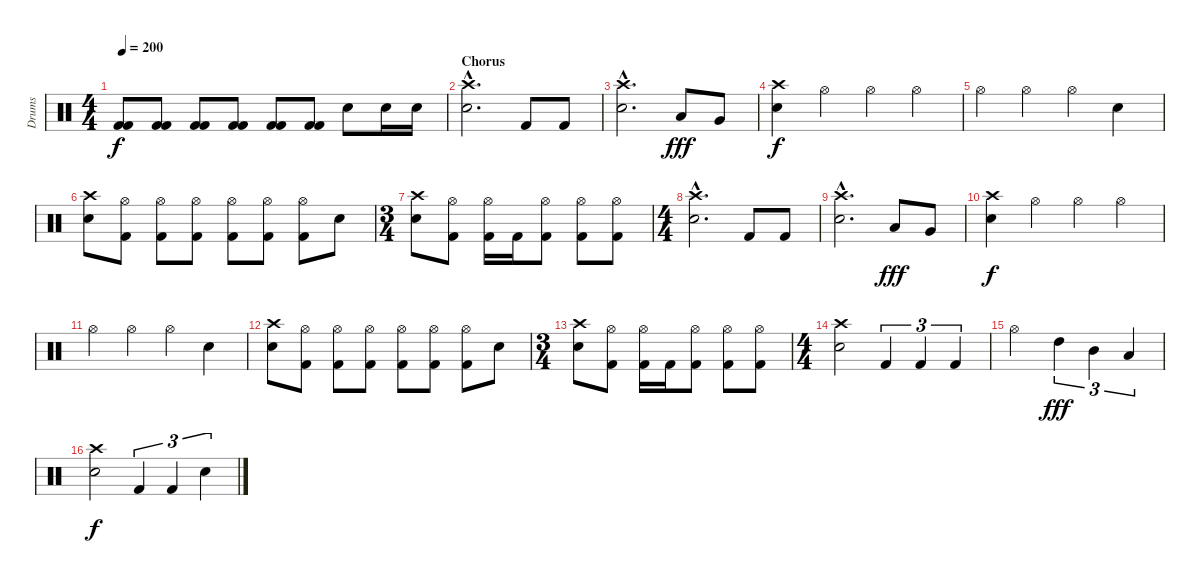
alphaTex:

\track ("Drums" "Drums") {instrument percussion}
\staff {score}
\articulation defaults
\ts (4 4)
\tempo 200
\clef neutral
\ks c
("Kick (hit) 2" "Kick (hit) 2").8{dy f} ("Kick (hit) 2" "Kick (hit) 2").8 ("Kick (hit) 2" "Kick (hit) 2").8 ("Kick (hit) 2" "Kick (hit) 2").8 ("Kick (hit) 2" "Kick (hit) 2").8 ("Kick (hit) 2" "Kick (hit) 2").8 "Snare (hit) 2".8 "Snare (hit) 2".16 "Snare (hit) 2".16 |
\section ("" "Chorus")
("Crash high (hit)"{hac} "Snare (hit) 2"{hac}).2{d} "Kick (hit) 2".8 "Kick (hit) 2".8 |
("Crash high (hit)"{hac} "Snare (hit) 2"{hac}).2{d} "Low Tom (hit)".8{dy fff} "Very Low Tom (hit)".8 |
("Crash high (hit)" "Snare (hit) 2").4{dy f} "Hi-Hat (open)".4 "Hi-Hat (open)".4 "Hi-Hat (open)".4 |
"Hi-Hat (open)".4 "Hi-Hat (open)".4 "Hi-Hat (open)".4 "Snare (hit) 2".4 |
("Crash high (hit)" "Snare (hit) 2").8 ("Hi-Hat (open)" "Kick (hit) 2").8 ("Hi-Hat (open)" "Kick (hit) 2").8 ("Hi-Hat (open)" "Kick (hit) 2").8 ("Hi-Hat (open)" "Kick (hit) 2").8 ("Hi-Hat (open)" "Kick (hit) 2").8 ("Hi-Hat (open)" "Kick (hit) 2").8 "Snare (hit) 2".8 |
\ts (3 4)
("Crash high (hit)" "Snare (hit) 2").8 ("Hi-Hat (open)" "Kick (hit) 2").8 ("Hi-Hat (open)" "Kick (hit) 2").16 "Kick (hit) 2".16 ("Hi-Hat (open)" "Kick (hit) 2").8 ("Hi-Hat (open)" "Kick (hit) 2").8 ("Hi-Hat (open)" "Kick (hit) 2").8 |
\ts (4 4)
("Crash high (hit)"{hac} "Snare (hit) 2"{hac}).2{d} "Kick (hit) 2".8 "Kick (hit) 2".8 |
("Crash high (hit)"{hac} "Snare (hit) 2"{hac}).2{d} "Low Tom (hit)".8{dy fff} "Very Low Tom (hit)".8 |
("Crash high (hit)" "Snare (hit) 2").4{dy f} "Hi-Hat (open)".4 "Hi-Hat (open)".4 "Hi-Hat (open)".4 |
"Hi-Hat (open)".4 "Hi-Hat (open)".4 "Hi-Hat (open)".4 "Snare (hit) 2".4 |
("Crash high (hit)" "Snare (hit) 2").8 ("Hi-Hat (open)" "Kick (hit) 2").8 ("Hi-Hat (open)" "Kick (hit) 2").8 ("Hi-Hat (open)" "Kick (hit) 2").8 ("Hi-Hat (open)" "Kick (hit) 2").8 ("Hi-Hat (open)" "Kick (hit) 2").8 ("Hi-Hat (open)" "Kick (hit) 2").8 "Snare (hit) 2".8 |
\ts (3 4)
("Crash high (hit)" "Snare (hit) 2").8 ("Hi-Hat (open)" "Kick (hit) 2").8 ("Hi-Hat (open)" "Kick (hit) 2").16 "Kick (hit) 2".16 ("Hi-Hat (open)" "Kick (hit) 2").8 ("Hi-Hat (open)" "Kick (hit) 2").8 ("Hi-Hat (open)" "Kick (hit) 2").8 |
\ts (4 4)
("Crash high (hit)" "Snare (hit) 2").2 "Kick (hit) 2".4{tu (3 2)} "Kick (hit) 2".4{tu (3 2)} "Kick (hit) 2".4{tu (3 2)} |
"Hi-Hat (open)".2 "High Tom (hit)".4{tu (3 2) dy fff} "Mid Tom (hit)".4{tu (3 2)} "Low Tom (hit)".4{tu (3 2)} |
("Crash high (hit)" "Snare (hit) 2").2{dy f} "Kick (hit) 2".4{tu (3 2)} "Kick (hit) 2".4{tu (3 2)} "Snare (hit) 2".4{tu (3 2)}
